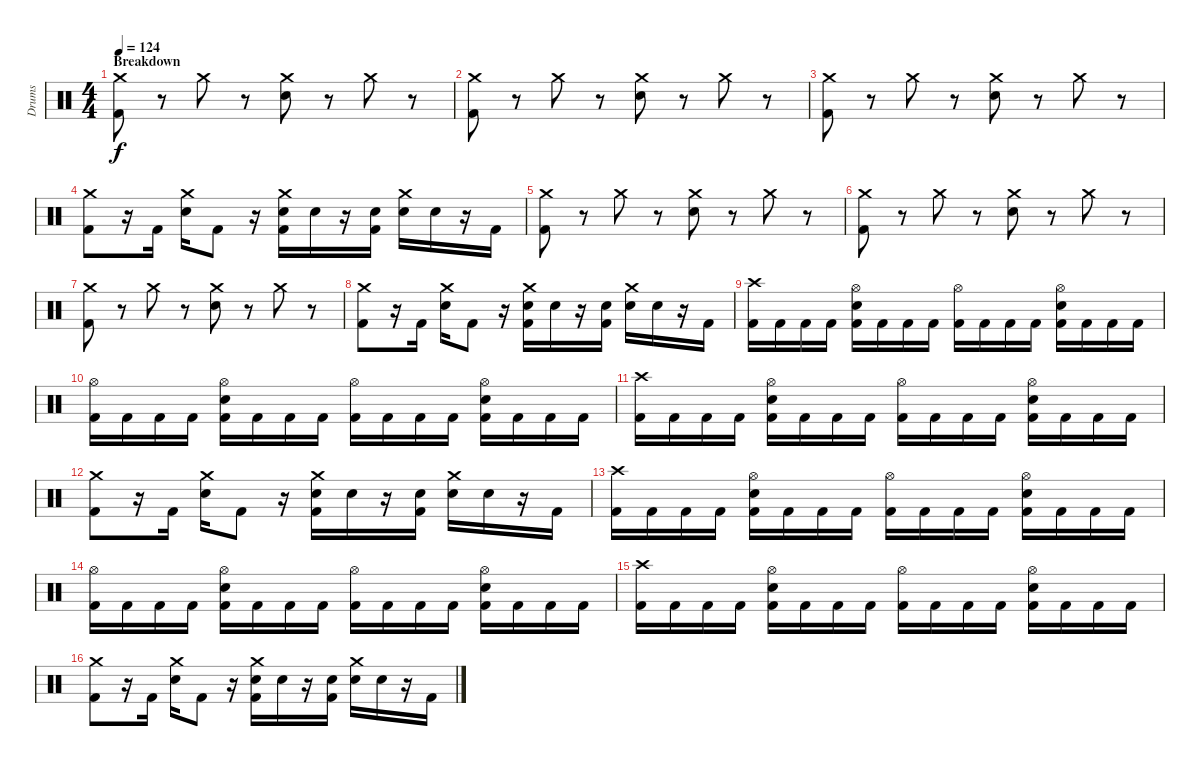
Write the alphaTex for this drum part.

\track ("Drums" "Drums") {instrument percussion}
\staff {score}
\articulation defaults
\ts (4 4)
\section ("" "Breakdown")
\tempo 124
\clef neutral
\ks c
("Crash medium (hit)" "Kick (hit) 2").8{dy f} r.8 "Crash medium (hit)".8 r.8 ("Crash medium (hit)" "Electric Snare (hit)").8 r.8 "Crash medium (hit)".8 r.8 |
("Crash medium (hit)" "Kick (hit) 2").8 r.8 "Crash medium (hit)".8 r.8 ("Crash medium (hit)" "Electric Snare (hit)").8 r.8 "Crash medium (hit)".8 r.8 |
("Crash medium (hit)" "Kick (hit) 2").8 r.8 "Crash medium (hit)".8 r.8 ("Crash medium (hit)" "Electric Snare (hit)").8 r.8 "Crash medium (hit)".8 r.8 |
("Crash medium (hit)" "Kick (hit) 2").8 r.16 "Kick (hit) 2".16 ("Crash medium (hit)" "Electric Snare (hit)").16 "Kick (hit) 2".8 r.16 ("Crash medium (hit)" "Electric Snare (hit)" "Kick (hit) 2").16 "Electric Snare (hit)".16 r.16 ("Electric Snare (hit)" "Kick (hit) 2").16 ("Crash medium (hit)" "Electric Snare (hit)").16 "Electric Snare (hit)".16 r.16 "Kick (hit) 2".16 |
("Crash medium (hit)" "Kick (hit) 2").8 r.8 "Crash medium (hit)".8 r.8 ("Crash medium (hit)" "Electric Snare (hit)").8 r.8 "Crash medium (hit)".8 r.8 |
("Crash medium (hit)" "Kick (hit) 2").8 r.8 "Crash medium (hit)".8 r.8 ("Crash medium (hit)" "Electric Snare (hit)").8 r.8 "Crash medium (hit)".8 r.8 |
("Crash medium (hit)" "Kick (hit) 2").8 r.8 "Crash medium (hit)".8 r.8 ("Crash medium (hit)" "Electric Snare (hit)").8 r.8 "Crash medium (hit)".8 r.8 |
("Crash medium (hit)" "Kick (hit) 2").8 r.16 "Kick (hit) 2".16 ("Crash medium (hit)" "Electric Snare (hit)").16 "Kick (hit) 2".8 r.16 ("Crash medium (hit)" "Electric Snare (hit)" "Kick (hit) 2").16 "Electric Snare (hit)".16 r.16 ("Electric Snare (hit)" "Kick (hit) 2").16 ("Crash medium (hit)" "Electric Snare (hit)").16 "Electric Snare (hit)".16 r.16 "Kick (hit) 2".16 |
("Crash high (hit)" "Kick (hit) 2").16 "Kick (hit) 2".16 "Kick (hit) 2".16 "Kick (hit) 2".16 ("Hi-Hat (open)" "Electric Snare (hit)" "Kick (hit) 2").16 "Kick (hit) 2".16 "Kick (hit) 2".16 "Kick (hit) 2".16 ("Hi-Hat (open)" "Kick (hit) 2").16 "Kick (hit) 2".16 "Kick (hit) 2".16 "Kick (hit) 2".16 ("Hi-Hat (open)" "Electric Snare (hit)" "Kick (hit) 2").16 "Kick (hit) 2".16 "Kick (hit) 2".16 "Kick (hit) 2".16 |
("Hi-Hat (open)" "Kick (hit) 2").16 "Kick (hit) 2".16 "Kick (hit) 2".16 "Kick (hit) 2".16 ("Hi-Hat (open)" "Electric Snare (hit)" "Kick (hit) 2").16 "Kick (hit) 2".16 "Kick (hit) 2".16 "Kick (hit) 2".16 ("Hi-Hat (open)" "Kick (hit) 2").16 "Kick (hit) 2".16 "Kick (hit) 2".16 "Kick (hit) 2".16 ("Hi-Hat (open)" "Electric Snare (hit)" "Kick (hit) 2").16 "Kick (hit) 2".16 "Kick (hit) 2".16 "Kick (hit) 2".16 |
("Crash high (hit)" "Kick (hit) 2").16 "Kick (hit) 2".16 "Kick (hit) 2".16 "Kick (hit) 2".16 ("Hi-Hat (open)" "Electric Snare (hit)" "Kick (hit) 2").16 "Kick (hit) 2".16 "Kick (hit) 2".16 "Kick (hit) 2".16 ("Hi-Hat (open)" "Kick (hit) 2").16 "Kick (hit) 2".16 "Kick (hit) 2".16 "Kick (hit) 2".16 ("Hi-Hat (open)" "Electric Snare (hit)" "Kick (hit) 2").16 "Kick (hit) 2".16 "Kick (hit) 2".16 "Kick (hit) 2".16 |
("Crash medium (hit)" "Kick (hit) 2").8 r.16 "Kick (hit) 2".16 ("Crash medium (hit)" "Electric Snare (hit)").16 "Kick (hit) 2".8 r.16 ("Crash medium (hit)" "Electric Snare (hit)" "Kick (hit) 2").16 "Electric Snare (hit)".16 r.16 ("Electric Snare (hit)" "Kick (hit) 2").16 ("Crash medium (hit)" "Electric Snare (hit)").16 "Electric Snare (hit)".16 r.16 "Kick (hit) 2".16 |
("Crash high (hit)" "Kick (hit) 2").16 "Kick (hit) 2".16 "Kick (hit) 2".16 "Kick (hit) 2".16 ("Hi-Hat (open)" "Electric Snare (hit)" "Kick (hit) 2").16 "Kick (hit) 2".16 "Kick (hit) 2".16 "Kick (hit) 2".16 ("Hi-Hat (open)" "Kick (hit) 2").16 "Kick (hit) 2".16 "Kick (hit) 2".16 "Kick (hit) 2".16 ("Hi-Hat (open)" "Electric Snare (hit)" "Kick (hit) 2").16 "Kick (hit) 2".16 "Kick (hit) 2".16 "Kick (hit) 2".16 |
("Hi-Hat (open)" "Kick (hit) 2").16 "Kick (hit) 2".16 "Kick (hit) 2".16 "Kick (hit) 2".16 ("Hi-Hat (open)" "Electric Snare (hit)" "Kick (hit) 2").16 "Kick (hit) 2".16 "Kick (hit) 2".16 "Kick (hit) 2".16 ("Hi-Hat (open)" "Kick (hit) 2").16 "Kick (hit) 2".16 "Kick (hit) 2".16 "Kick (hit) 2".16 ("Hi-Hat (open)" "Electric Snare (hit)" "Kick (hit) 2").16 "Kick (hit) 2".16 "Kick (hit) 2".16 "Kick (hit) 2".16 |
("Crash high (hit)" "Kick (hit) 2").16 "Kick (hit) 2".16 "Kick (hit) 2".16 "Kick (hit) 2".16 ("Hi-Hat (open)" "Electric Snare (hit)" "Kick (hit) 2").16 "Kick (hit) 2".16 "Kick (hit) 2".16 "Kick (hit) 2".16 ("Hi-Hat (open)" "Kick (hit) 2").16 "Kick (hit) 2".16 "Kick (hit) 2".16 "Kick (hit) 2".16 ("Hi-Hat (open)" "Electric Snare (hit)" "Kick (hit) 2").16 "Kick (hit) 2".16 "Kick (hit) 2".16 "Kick (hit) 2".16 |
("Crash medium (hit)" "Kick (hit) 2").8 r.16 "Kick (hit) 2".16 ("Crash medium (hit)" "Electric Snare (hit)").16 "Kick (hit) 2".8 r.16 ("Crash medium (hit)" "Electric Snare (hit)" "Kick (hit) 2").16 "Electric Snare (hit)".16 r.16 ("Electric Snare (hit)" "Kick (hit) 2").16 ("Crash medium (hit)" "Electric Snare (hit)").16 "Electric Snare (hit)".16 r.16 "Kick (hit) 2".16
